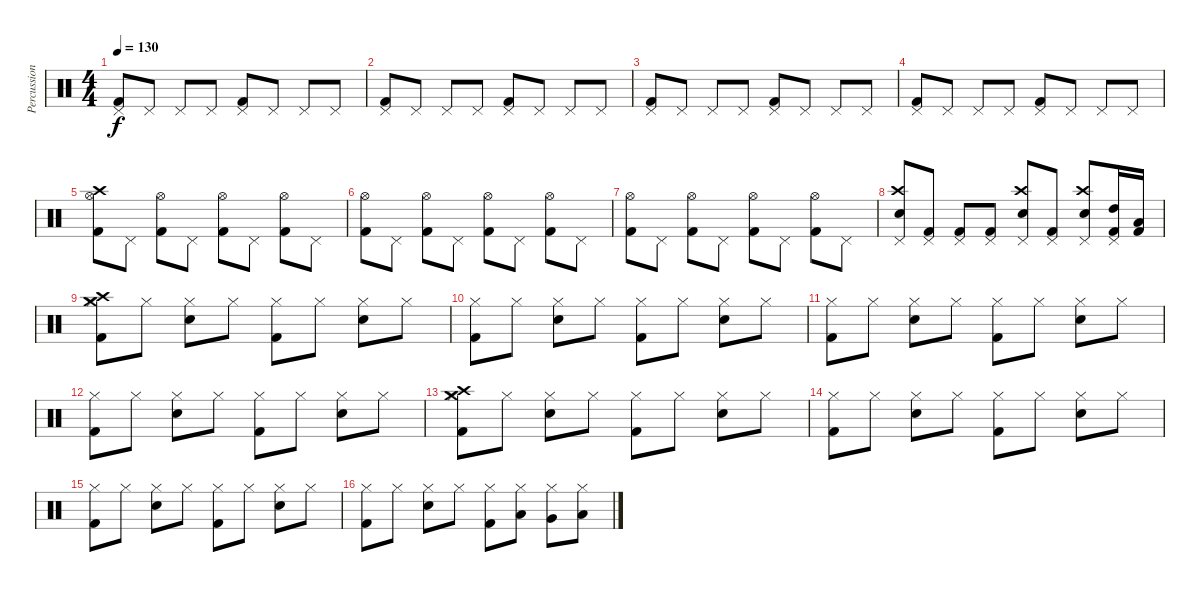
\track ("Percussion" "Percussion") {instrument percussion}
\staff {score}
\articulation defaults
\ts (4 4)
\tempo 130
\clef neutral
\ks c
("Pedal Hi-Hat (hit)" "Kick (hit) 2").8{dy f} "Pedal Hi-Hat (hit)".8 "Pedal Hi-Hat (hit)".8 "Pedal Hi-Hat (hit)".8 ("Pedal Hi-Hat (hit)" "Kick (hit) 2").8 "Pedal Hi-Hat (hit)".8 "Pedal Hi-Hat (hit)".8 "Pedal Hi-Hat (hit)".8 |
("Pedal Hi-Hat (hit)" "Kick (hit) 2").8 "Pedal Hi-Hat (hit)".8 "Pedal Hi-Hat (hit)".8 "Pedal Hi-Hat (hit)".8 ("Pedal Hi-Hat (hit)" "Kick (hit) 2").8 "Pedal Hi-Hat (hit)".8 "Pedal Hi-Hat (hit)".8 "Pedal Hi-Hat (hit)".8 |
("Pedal Hi-Hat (hit)" "Kick (hit) 2").8 "Pedal Hi-Hat (hit)".8 "Pedal Hi-Hat (hit)".8 "Pedal Hi-Hat (hit)".8 ("Pedal Hi-Hat (hit)" "Kick (hit) 2").8 "Pedal Hi-Hat (hit)".8 "Pedal Hi-Hat (hit)".8 "Pedal Hi-Hat (hit)".8 |
("Pedal Hi-Hat (hit)" "Kick (hit) 2").8 "Pedal Hi-Hat (hit)".8 "Pedal Hi-Hat (hit)".8 "Pedal Hi-Hat (hit)".8 ("Pedal Hi-Hat (hit)" "Kick (hit) 2").8 "Pedal Hi-Hat (hit)".8 "Pedal Hi-Hat (hit)".8 "Pedal Hi-Hat (hit)".8 |
("Crash high (hit)" "Hi-Hat (open)" "Kick (hit) 2").8 "Pedal Hi-Hat (hit)".8 ("Hi-Hat (open)" "Kick (hit) 2").8 "Pedal Hi-Hat (hit)".8 ("Hi-Hat (open)" "Kick (hit) 2").8 "Pedal Hi-Hat (hit)".8 ("Hi-Hat (open)" "Kick (hit) 2").8 "Pedal Hi-Hat (hit)".8 |
("Hi-Hat (open)" "Kick (hit) 2").8 "Pedal Hi-Hat (hit)".8 ("Hi-Hat (open)" "Kick (hit) 2").8 "Pedal Hi-Hat (hit)".8 ("Hi-Hat (open)" "Kick (hit) 2").8 "Pedal Hi-Hat (hit)".8 ("Hi-Hat (open)" "Kick (hit) 2").8 "Pedal Hi-Hat (hit)".8 |
("Hi-Hat (open)" "Kick (hit) 2").8 "Pedal Hi-Hat (hit)".8 ("Hi-Hat (open)" "Kick (hit) 2").8 "Pedal Hi-Hat (hit)".8 ("Hi-Hat (open)" "Kick (hit) 2").8 "Pedal Hi-Hat (hit)".8 ("Hi-Hat (open)" "Kick (hit) 2").8 "Pedal Hi-Hat (hit)".8 |
("Crash high (hit)" "Pedal Hi-Hat (hit)" "Snare (hit) 2").8 ("Pedal Hi-Hat (hit)" "Kick (hit) 2").8 ("Pedal Hi-Hat (hit)" "Kick (hit) 2").8 ("Pedal Hi-Hat (hit)" "Kick (hit) 2").8 ("Crash high (hit)" "Pedal Hi-Hat (hit)" "Snare (hit) 2").8 ("Pedal Hi-Hat (hit)" "Kick (hit) 2").8 ("Crash high (hit)" "Pedal Hi-Hat (hit)" "Snare (hit) 2").8 ("Pedal Hi-Hat (hit)" "High Tom (hit)" "Kick (hit) 2").16 ("Low Tom (hit)" "Kick (hit) 2").16 |
("Crash medium (hit)" "Crash high (hit)" "Hi-Hat (closed)" "Kick (hit) 2").8 "Hi-Hat (closed)".8 ("Hi-Hat (closed)" "Snare (hit) 2").8 "Hi-Hat (closed)".8 ("Hi-Hat (closed)" "Kick (hit) 2").8 "Hi-Hat (closed)".8 ("Hi-Hat (closed)" "Snare (hit) 2").8 "Hi-Hat (closed)".8 |
("Hi-Hat (closed)" "Kick (hit) 2").8 "Hi-Hat (closed)".8 ("Hi-Hat (closed)" "Snare (hit) 2").8 "Hi-Hat (closed)".8 ("Hi-Hat (closed)" "Kick (hit) 2").8 "Hi-Hat (closed)".8 ("Hi-Hat (closed)" "Snare (hit) 2").8 "Hi-Hat (closed)".8 |
("Hi-Hat (closed)" "Kick (hit) 2").8 "Hi-Hat (closed)".8 ("Hi-Hat (closed)" "Snare (hit) 2").8 "Hi-Hat (closed)".8 ("Hi-Hat (closed)" "Kick (hit) 2").8 "Hi-Hat (closed)".8 ("Hi-Hat (closed)" "Snare (hit) 2").8 "Hi-Hat (closed)".8 |
("Hi-Hat (closed)" "Kick (hit) 2").8 "Hi-Hat (closed)".8 ("Hi-Hat (closed)" "Snare (hit) 2").8 "Hi-Hat (closed)".8 ("Hi-Hat (closed)" "Kick (hit) 2").8 "Hi-Hat (closed)".8 ("Hi-Hat (closed)" "Snare (hit) 2").8 "Hi-Hat (closed)".8 |
("Crash medium (hit)" "Crash high (hit)" "Hi-Hat (closed)" "Kick (hit) 2").8 "Hi-Hat (closed)".8 ("Hi-Hat (closed)" "Snare (hit) 2").8 "Hi-Hat (closed)".8 ("Hi-Hat (closed)" "Kick (hit) 2").8 "Hi-Hat (closed)".8 ("Hi-Hat (closed)" "Snare (hit) 2").8 "Hi-Hat (closed)".8 |
("Hi-Hat (closed)" "Kick (hit) 2").8 "Hi-Hat (closed)".8 ("Hi-Hat (closed)" "Snare (hit) 2").8 "Hi-Hat (closed)".8 ("Hi-Hat (closed)" "Kick (hit) 2").8 "Hi-Hat (closed)".8 ("Hi-Hat (closed)" "Snare (hit) 2").8 "Hi-Hat (closed)".8 |
("Hi-Hat (closed)" "Kick (hit) 2").8 "Hi-Hat (closed)".8 ("Hi-Hat (closed)" "Snare (hit) 2").8 "Hi-Hat (closed)".8 ("Hi-Hat (closed)" "Kick (hit) 2").8 "Hi-Hat (closed)".8 ("Hi-Hat (closed)" "Snare (hit) 2").8 "Hi-Hat (closed)".8 |
("Hi-Hat (closed)" "Kick (hit) 2").8 "Hi-Hat (closed)".8 ("Hi-Hat (closed)" "Snare (hit) 2").8 "Hi-Hat (closed)".8 ("Hi-Hat (closed)" "Kick (hit) 2").8 ("Hi-Hat (closed)" "Low Tom (hit)").8 ("Hi-Hat (closed)" "Very Low Tom (hit)").8 ("Hi-Hat (closed)" "Low Floor Tom (hit)").8
